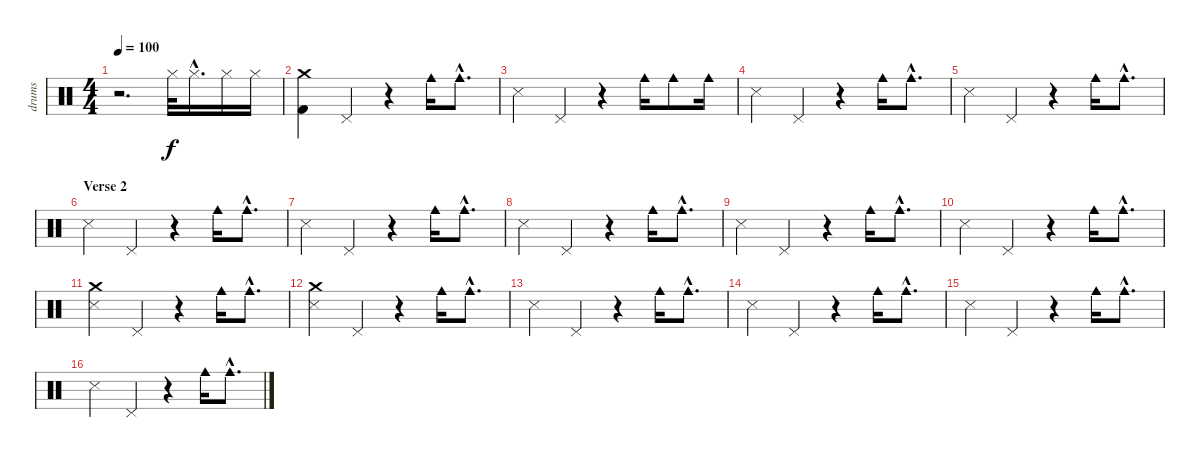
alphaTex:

\track ("drums" "drums") {instrument percussion}
\staff {score}
\articulation defaults
\ts (4 4)
\tempo 100
\clef neutral
\ks c
r.2{d dy f} "Hi-Hat (closed)".32 "Hi-Hat (closed)"{hac}.16{d} "Hi-Hat (closed)".16 "Hi-Hat (closed)".16 |
("Crash medium (hit)" "Kick (hit) 2").4 "Pedal Hi-Hat (hit)".4 r.4 "Cowbell medium (hit)".16 "Cowbell medium (hit)"{hac}.8{d} |
"Snare (side stick) 3".4 "Pedal Hi-Hat (hit)".4 r.4 "Cowbell medium (hit)".16 "Cowbell medium (hit)".8 "Cowbell medium (hit)".16 |
"Snare (side stick) 3".4 "Pedal Hi-Hat (hit)".4 r.4 "Cowbell medium (hit)".16 "Cowbell medium (hit)"{hac}.8{d} |
"Snare (side stick) 3".4 "Pedal Hi-Hat (hit)".4 r.4 "Cowbell medium (hit)".16 "Cowbell medium (hit)"{hac}.8{d} |
\section ("" "Verse 2")
"Snare (side stick) 3".4 "Pedal Hi-Hat (hit)".4 r.4 "Cowbell medium (hit)".16 "Cowbell medium (hit)"{hac}.8{d} |
"Snare (side stick) 3".4 "Pedal Hi-Hat (hit)".4 r.4 "Cowbell medium (hit)".16 "Cowbell medium (hit)"{hac}.8{d} |
"Snare (side stick) 3".4 "Pedal Hi-Hat (hit)".4 r.4 "Cowbell medium (hit)".16 "Cowbell medium (hit)"{hac}.8{d} |
"Snare (side stick) 3".4 "Pedal Hi-Hat (hit)".4 r.4 "Cowbell medium (hit)".16 "Cowbell medium (hit)"{hac}.8{d} |
"Snare (side stick) 3".4 "Pedal Hi-Hat (hit)".4 r.4 "Cowbell medium (hit)".16 "Cowbell medium (hit)"{hac}.8{d} |
("Crash medium (hit)" "Snare (side stick) 3").4 "Pedal Hi-Hat (hit)".4 r.4 "Cowbell medium (hit)".16 "Cowbell medium (hit)"{hac}.8{d} |
("Crash medium (hit)" "Snare (side stick) 3").4 "Pedal Hi-Hat (hit)".4 r.4 "Cowbell medium (hit)".16 "Cowbell medium (hit)"{hac}.8{d} |
"Snare (side stick) 3".4 "Pedal Hi-Hat (hit)".4 r.4 "Cowbell medium (hit)".16 "Cowbell medium (hit)"{hac}.8{d} |
"Snare (side stick) 3".4 "Pedal Hi-Hat (hit)".4 r.4 "Cowbell medium (hit)".16 "Cowbell medium (hit)"{hac}.8{d} |
"Snare (side stick) 3".4 "Pedal Hi-Hat (hit)".4 r.4 "Cowbell medium (hit)".16 "Cowbell medium (hit)"{hac}.8{d} |
"Snare (side stick) 3".4 "Pedal Hi-Hat (hit)".4 r.4 "Cowbell medium (hit)".16 "Cowbell medium (hit)"{hac}.8{d}
